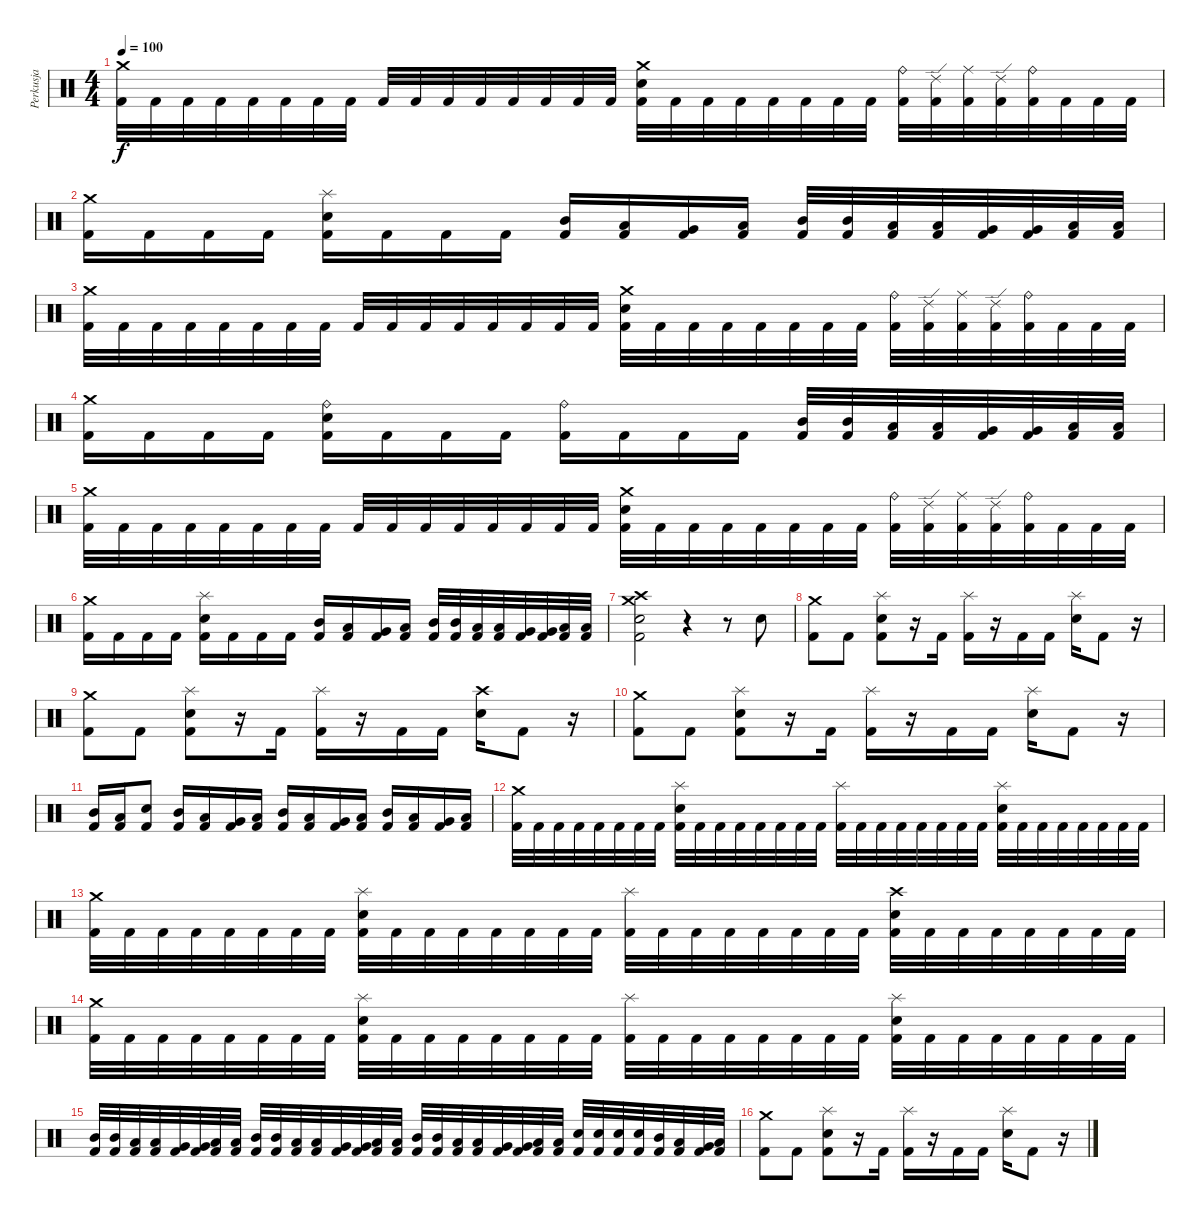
\track ("Perkusja" "Perkusja") {instrument percussion}
\staff {score}
\articulation defaults
\ts (4 4)
\tempo 100
\clef neutral
\ks c
("Crash medium (hit)" "Kick (hit) 2").32{dy f} "Kick (hit) 2".32 "Kick (hit) 2".32 "Kick (hit) 2".32 "Kick (hit) 2".32 "Kick (hit) 2".32 "Kick (hit) 2".32 "Kick (hit) 2".32 "Kick (hit) 2".32 "Kick (hit) 2".32 "Kick (hit) 2".32 "Kick (hit) 2".32 "Kick (hit) 2".32 "Kick (hit) 2".32 "Kick (hit) 2".32 "Kick (hit) 2".32 ("Crash medium (hit)" "Electric Snare (hit)" "Kick (hit) 2").32 "Kick (hit) 2".32 "Kick (hit) 2".32 "Kick (hit) 2".32 "Kick (hit) 2".32 "Kick (hit) 2".32 "Kick (hit) 2".32 "Kick (hit) 2".32 ("Ride (bell)" "Kick (hit) 2").32 ("Ride (edge) 2" "Kick (hit) 2").32 ("Ride (middle)" "Kick (hit) 2").32 ("Ride (edge) 2" "Kick (hit) 2").32 ("Ride (bell)" "Kick (hit) 2").32 "Kick (hit) 2".32 "Kick (hit) 2".32 "Kick (hit) 2".32 |
("Crash medium (hit)" "Kick (hit) 2").16 "Kick (hit) 2".16 "Kick (hit) 2".16 "Kick (hit) 2".16 ("Splash (hit)" "Electric Snare (hit)" "Kick (hit) 2").16 "Kick (hit) 2".16 "Kick (hit) 2".16 "Kick (hit) 2".16 ("Mid Tom (hit)" "Kick (hit) 2").16 ("Low Tom (hit)" "Kick (hit) 2").16 ("Very Low Tom (hit)" "Kick (hit) 2").16 ("Low Floor Tom (hit)" "Kick (hit) 2").16 ("Mid Tom (hit)" "Kick (hit) 2").32 ("Mid Tom (hit)" "Kick (hit) 2").32 ("Low Tom (hit)" "Kick (hit) 2").32 ("Low Tom (hit)" "Kick (hit) 2").32 ("Very Low Tom (hit)" "Kick (hit) 2").32 ("Very Low Tom (hit)" "Kick (hit) 2").32 ("Low Floor Tom (hit)" "Kick (hit) 2").32 ("Low Floor Tom (hit)" "Kick (hit) 2").32 |
("Crash medium (hit)" "Kick (hit) 2").32 "Kick (hit) 2".32 "Kick (hit) 2".32 "Kick (hit) 2".32 "Kick (hit) 2".32 "Kick (hit) 2".32 "Kick (hit) 2".32 "Kick (hit) 2".32 "Kick (hit) 2".32 "Kick (hit) 2".32 "Kick (hit) 2".32 "Kick (hit) 2".32 "Kick (hit) 2".32 "Kick (hit) 2".32 "Kick (hit) 2".32 "Kick (hit) 2".32 ("Crash medium (hit)" "Electric Snare (hit)" "Kick (hit) 2").32 "Kick (hit) 2".32 "Kick (hit) 2".32 "Kick (hit) 2".32 "Kick (hit) 2".32 "Kick (hit) 2".32 "Kick (hit) 2".32 "Kick (hit) 2".32 ("Ride (bell)" "Kick (hit) 2").32 ("Ride (edge) 2" "Kick (hit) 2").32 ("Ride (middle)" "Kick (hit) 2").32 ("Ride (edge) 2" "Kick (hit) 2").32 ("Ride (bell)" "Kick (hit) 2").32 "Kick (hit) 2".32 "Kick (hit) 2".32 "Kick (hit) 2".32 |
("Crash medium (hit)" "Kick (hit) 2").16 "Kick (hit) 2".16 "Kick (hit) 2".16 "Kick (hit) 2".16 ("Ride (bell)" "Electric Snare (hit)" "Kick (hit) 2").16 "Kick (hit) 2".16 "Kick (hit) 2".16 "Kick (hit) 2".16 ("Ride (bell)" "Kick (hit) 2").16 "Kick (hit) 2".16 "Kick (hit) 2".16 "Kick (hit) 2".16 ("Mid Tom (hit)" "Kick (hit) 2").32 ("Mid Tom (hit)" "Kick (hit) 2").32 ("Low Tom (hit)" "Kick (hit) 2").32 ("Low Tom (hit)" "Kick (hit) 2").32 ("Very Low Tom (hit)" "Kick (hit) 2").32 ("Very Low Tom (hit)" "Kick (hit) 2").32 ("Low Floor Tom (hit)" "Kick (hit) 2").32 ("Low Floor Tom (hit)" "Kick (hit) 2").32 |
("Crash medium (hit)" "Kick (hit) 2").32 "Kick (hit) 2".32 "Kick (hit) 2".32 "Kick (hit) 2".32 "Kick (hit) 2".32 "Kick (hit) 2".32 "Kick (hit) 2".32 "Kick (hit) 2".32 "Kick (hit) 2".32 "Kick (hit) 2".32 "Kick (hit) 2".32 "Kick (hit) 2".32 "Kick (hit) 2".32 "Kick (hit) 2".32 "Kick (hit) 2".32 "Kick (hit) 2".32 ("Crash medium (hit)" "Electric Snare (hit)" "Kick (hit) 2").32 "Kick (hit) 2".32 "Kick (hit) 2".32 "Kick (hit) 2".32 "Kick (hit) 2".32 "Kick (hit) 2".32 "Kick (hit) 2".32 "Kick (hit) 2".32 ("Ride (bell)" "Kick (hit) 2").32 ("Ride (edge) 2" "Kick (hit) 2").32 ("Ride (middle)" "Kick (hit) 2").32 ("Ride (edge) 2" "Kick (hit) 2").32 ("Ride (bell)" "Kick (hit) 2").32 "Kick (hit) 2".32 "Kick (hit) 2".32 "Kick (hit) 2".32 |
("Crash medium (hit)" "Kick (hit) 2").16 "Kick (hit) 2".16 "Kick (hit) 2".16 "Kick (hit) 2".16 ("Splash (hit)" "Electric Snare (hit)" "Kick (hit) 2").16 "Kick (hit) 2".16 "Kick (hit) 2".16 "Kick (hit) 2".16 ("Mid Tom (hit)" "Kick (hit) 2").16 ("Low Tom (hit)" "Kick (hit) 2").16 ("Very Low Tom (hit)" "Kick (hit) 2").16 ("Low Floor Tom (hit)" "Kick (hit) 2").16 ("Mid Tom (hit)" "Kick (hit) 2").32 ("Mid Tom (hit)" "Kick (hit) 2").32 ("Low Tom (hit)" "Kick (hit) 2").32 ("Low Tom (hit)" "Kick (hit) 2").32 ("Very Low Tom (hit)" "Kick (hit) 2").32 ("Very Low Tom (hit)" "Kick (hit) 2").32 ("Low Floor Tom (hit)" "Kick (hit) 2").32 ("Low Floor Tom (hit)" "Kick (hit) 2").32 |
("Snare (hit) 2" "Kick (hit) 2" "Crash high (hit)" "Crash medium (hit)").2 r.4 r.8 "Electric Snare (hit)".8 |
("Crash medium (hit)" "Kick (hit) 2").8 "Kick (hit) 2".8 ("Splash (hit)" "Electric Snare (hit)" "Kick (hit) 2").8 r.16 "Kick (hit) 2".16 ("Splash (hit)" "Kick (hit) 2").16 r.16 "Kick (hit) 2".16 "Kick (hit) 2".16 ("Splash (hit)" "Electric Snare (hit)").16 "Kick (hit) 2".8 r.16 |
("Crash medium (hit)" "Kick (hit) 2").8 "Kick (hit) 2".8 ("Splash (hit)" "Electric Snare (hit)" "Kick (hit) 2").8 r.16 "Kick (hit) 2".16 ("Splash (hit)" "Kick (hit) 2").16 r.16 "Kick (hit) 2".16 "Kick (hit) 2".16 ("Crash high (hit)" "Electric Snare (hit)").16 "Kick (hit) 2".8 r.16 |
("Crash medium (hit)" "Kick (hit) 2").8 "Kick (hit) 2".8 ("Splash (hit)" "Electric Snare (hit)" "Kick (hit) 2").8 r.16 "Kick (hit) 2".16 ("Splash (hit)" "Kick (hit) 2").16 r.16 "Kick (hit) 2".16 "Kick (hit) 2".16 ("Splash (hit)" "Electric Snare (hit)").16 "Kick (hit) 2".8 r.16 |
("Mid Tom (hit)" "Kick (hit) 2").16 ("Low Tom (hit)" "Kick (hit) 2").16 ("Electric Snare (hit)" "Kick (hit) 2").8 ("Mid Tom (hit)" "Kick (hit) 2").16 ("Low Tom (hit)" "Kick (hit) 2").16 ("Very Low Tom (hit)" "Kick (hit) 2").16 ("Low Floor Tom (hit)" "Kick (hit) 2").16 ("Mid Tom (hit)" "Kick (hit) 2").16 ("Low Tom (hit)" "Kick (hit) 2").16 ("Very Low Tom (hit)" "Kick (hit) 2").16 ("Low Floor Tom (hit)" "Kick (hit) 2").16 ("Mid Tom (hit)" "Kick (hit) 2").16 ("Low Tom (hit)" "Kick (hit) 2").16 ("Very Low Tom (hit)" "Kick (hit) 2").16 ("Low Floor Tom (hit)" "Kick (hit) 2").16 |
("Crash medium (hit)" "Kick (hit) 2").32 "Kick (hit) 2".32 "Kick (hit) 2".32 "Kick (hit) 2".32 "Kick (hit) 2".32 "Kick (hit) 2".32 "Kick (hit) 2".32 "Kick (hit) 2".32 ("Splash (hit)" "Electric Snare (hit)" "Kick (hit) 2").32 "Kick (hit) 2".32 "Kick (hit) 2".32 "Kick (hit) 2".32 "Kick (hit) 2".32 "Kick (hit) 2".32 "Kick (hit) 2".32 "Kick (hit) 2".32 ("Splash (hit)" "Kick (hit) 2").32 "Kick (hit) 2".32 "Kick (hit) 2".32 "Kick (hit) 2".32 "Kick (hit) 2".32 "Kick (hit) 2".32 "Kick (hit) 2".32 "Kick (hit) 2".32 ("Splash (hit)" "Electric Snare (hit)" "Kick (hit) 2").32 "Kick (hit) 2".32 "Kick (hit) 2".32 "Kick (hit) 2".32 "Kick (hit) 2".32 "Kick (hit) 2".32 "Kick (hit) 2".32 "Kick (hit) 2".32 |
("Crash medium (hit)" "Kick (hit) 2").32 "Kick (hit) 2".32 "Kick (hit) 2".32 "Kick (hit) 2".32 "Kick (hit) 2".32 "Kick (hit) 2".32 "Kick (hit) 2".32 "Kick (hit) 2".32 ("Splash (hit)" "Electric Snare (hit)" "Kick (hit) 2").32 "Kick (hit) 2".32 "Kick (hit) 2".32 "Kick (hit) 2".32 "Kick (hit) 2".32 "Kick (hit) 2".32 "Kick (hit) 2".32 "Kick (hit) 2".32 ("Splash (hit)" "Kick (hit) 2").32 "Kick (hit) 2".32 "Kick (hit) 2".32 "Kick (hit) 2".32 "Kick (hit) 2".32 "Kick (hit) 2".32 "Kick (hit) 2".32 "Kick (hit) 2".32 ("Crash high (hit)" "Electric Snare (hit)" "Kick (hit) 2").32 "Kick (hit) 2".32 "Kick (hit) 2".32 "Kick (hit) 2".32 "Kick (hit) 2".32 "Kick (hit) 2".32 "Kick (hit) 2".32 "Kick (hit) 2".32 |
("Crash medium (hit)" "Kick (hit) 2").32 "Kick (hit) 2".32 "Kick (hit) 2".32 "Kick (hit) 2".32 "Kick (hit) 2".32 "Kick (hit) 2".32 "Kick (hit) 2".32 "Kick (hit) 2".32 ("Splash (hit)" "Electric Snare (hit)" "Kick (hit) 2").32 "Kick (hit) 2".32 "Kick (hit) 2".32 "Kick (hit) 2".32 "Kick (hit) 2".32 "Kick (hit) 2".32 "Kick (hit) 2".32 "Kick (hit) 2".32 ("Splash (hit)" "Kick (hit) 2").32 "Kick (hit) 2".32 "Kick (hit) 2".32 "Kick (hit) 2".32 "Kick (hit) 2".32 "Kick (hit) 2".32 "Kick (hit) 2".32 "Kick (hit) 2".32 ("Splash (hit)" "Electric Snare (hit)" "Kick (hit) 2").32 "Kick (hit) 2".32 "Kick (hit) 2".32 "Kick (hit) 2".32 "Kick (hit) 2".32 "Kick (hit) 2".32 "Kick (hit) 2".32 "Kick (hit) 2".32 |
("Mid Tom (hit)" "Kick (hit) 2").32 ("Mid Tom (hit)" "Kick (hit) 2").32 ("Low Tom (hit)" "Kick (hit) 2").32 ("Low Tom (hit)" "Kick (hit) 2").32 ("Very Low Tom (hit)" "Kick (hit) 2").32 ("Very Low Tom (hit)" "Kick (hit) 2").32 ("Low Floor Tom (hit)" "Kick (hit) 2").32 ("Low Floor Tom (hit)" "Kick (hit) 2").32 ("Mid Tom (hit)" "Kick (hit) 2").32 ("Mid Tom (hit)" "Kick (hit) 2").32 ("Low Tom (hit)" "Kick (hit) 2").32 ("Low Tom (hit)" "Kick (hit) 2").32 ("Very Low Tom (hit)" "Kick (hit) 2").32 ("Very Low Tom (hit)" "Kick (hit) 2").32 ("Low Floor Tom (hit)" "Kick (hit) 2").32 ("Low Floor Tom (hit)" "Kick (hit) 2").32 ("Mid Tom (hit)" "Kick (hit) 2").32 ("Mid Tom (hit)" "Kick (hit) 2").32 ("Low Tom (hit)" "Kick (hit) 2").32 ("Low Tom (hit)" "Kick (hit) 2").32 ("Very Low Tom (hit)" "Kick (hit) 2").32 ("Very Low Tom (hit)" "Kick (hit) 2").32 ("Low Floor Tom (hit)" "Kick (hit) 2").32 ("Low Floor Tom (hit)" "Kick (hit) 2").32 ("Electric Snare (hit)" "Kick (hit) 2").32 ("Electric Snare (hit)" "Kick (hit) 2").32 ("Electric Snare (hit)" "Kick (hit) 2").32 ("Electric Snare (hit)" "Kick (hit) 2").32 ("Mid Tom (hit)" "Kick (hit) 2").32 ("Low Tom (hit)" "Kick (hit) 2").32 ("Very Low Tom (hit)" "Kick (hit) 2").32 ("Low Floor Tom (hit)" "Kick (hit) 2").32 |
("Crash medium (hit)" "Kick (hit) 2").8 "Kick (hit) 2".8 ("Splash (hit)" "Electric Snare (hit)" "Kick (hit) 2").8 r.16 "Kick (hit) 2".16 ("Splash (hit)" "Kick (hit) 2").16 r.16 "Kick (hit) 2".16 "Kick (hit) 2".16 ("Splash (hit)" "Electric Snare (hit)").16 "Kick (hit) 2".8 r.16
